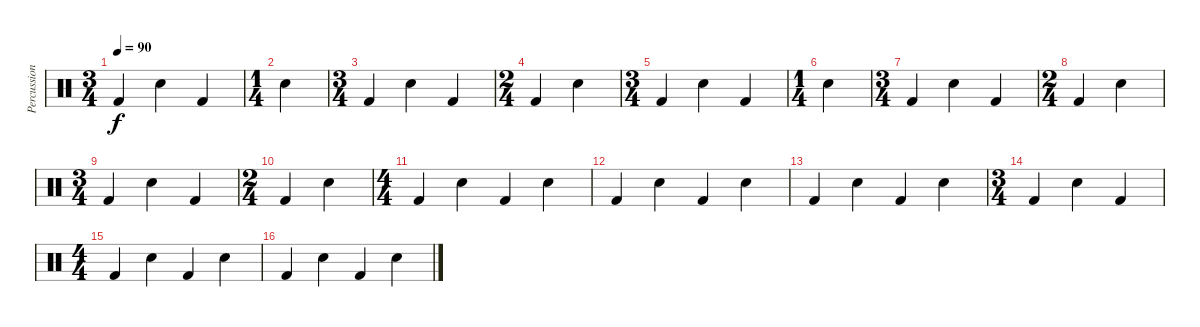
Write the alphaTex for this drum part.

\track ("Percussion" "Percussion") {instrument percussion}
\staff {score}
\articulation defaults
\ts (3 4)
\tempo 90
\clef neutral
\ks c "Kick (hit) 2".4{dy f} "Snare (hit) 2".4 "Kick (hit) 2".4
|
\ts (1 4)
"Snare (hit) 2".4 |
\ts (3 4)
"Kick (hit) 2".4 "Snare (hit) 2".4 "Kick (hit) 2".4 |
\ts (2 4)
"Kick (hit) 2".4 "Snare (hit) 2".4 |
\ts (3 4)
"Kick (hit) 2".4 "Snare (hit) 2".4 "Kick (hit) 2".4 |
\ts (1 4)
"Snare (hit) 2".4 |
\ts (3 4)
"Kick (hit) 2".4 "Snare (hit) 2".4 "Kick (hit) 2".4 |
\ts (2 4)
"Kick (hit) 2".4 "Snare (hit) 2".4 |
\ts (3 4)
"Kick (hit) 2".4 "Snare (hit) 2".4 "Kick (hit) 2".4 |
\ts (2 4)
"Kick (hit) 2".4 "Snare (hit) 2".4 |
\ts (4 4)
"Kick (hit) 2".4 "Snare (hit) 2".4 "Kick (hit) 2".4 "Snare (hit) 2".4 |
"Kick (hit) 2".4 "Snare (hit) 2".4 "Kick (hit) 2".4 "Snare (hit) 2".4 |
"Kick (hit) 2".4 "Snare (hit) 2".4 "Kick (hit) 2".4 "Snare (hit) 2".4 |
\ts (3 4)
"Kick (hit) 2".4 "Snare (hit) 2".4 "Kick (hit) 2".4 |
\ts (4 4)
"Kick (hit) 2".4 "Snare (hit) 2".4 "Kick (hit) 2".4 "Snare (hit) 2".4 |
"Kick (hit) 2".4 "Snare (hit) 2".4 "Kick (hit) 2".4 "Snare (hit) 2".4
